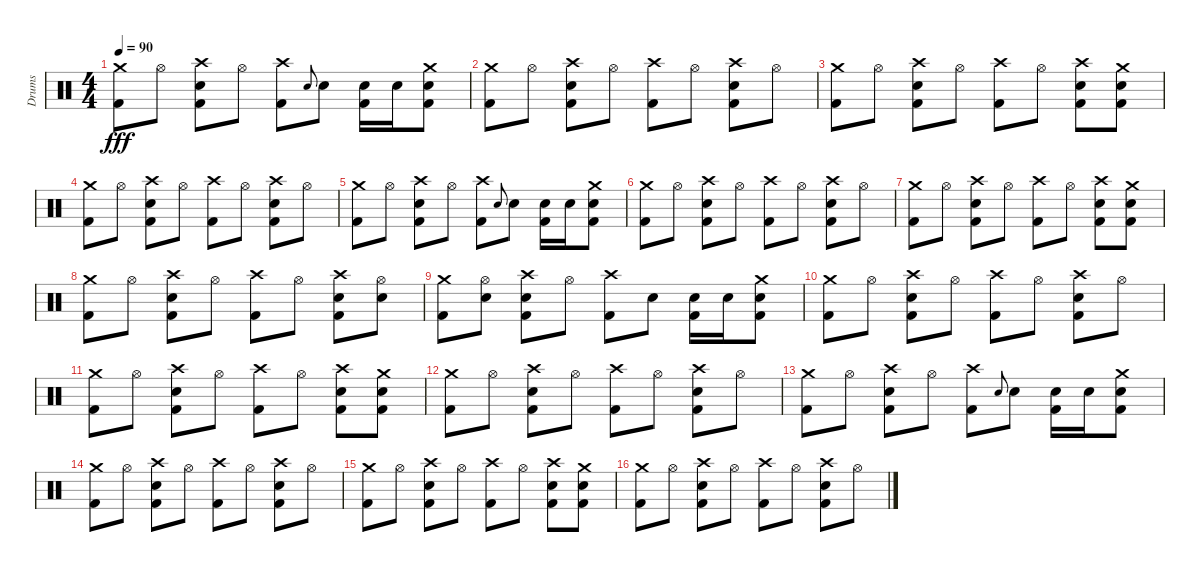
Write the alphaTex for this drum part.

\track ("Drums" "Drums") {instrument percussion}
\staff {score}
\articulation defaults
\ts (4 4)
\tempo 90
\clef neutral
\ks c
("Crash medium (hit)" "Kick (hit) 2").8{dy fff} "Hi-Hat (open)".8 ("Crash high (hit)" "Snare (hit) 2" "Kick (hit) 2").8 "Hi-Hat (open)".8 ("Crash high (hit)" "Kick (hit) 2").8 "Electric Snare (hit)".8{gr onbeat} "Electric Snare (hit)".8 ("Electric Snare (hit)" "Kick (hit) 2").16 "Electric Snare (hit)".16 ("Crash medium (hit)" "Snare (hit) 2" "Kick (hit) 2").8 |
("Crash medium (hit)" "Kick (hit) 2").8 "Hi-Hat (open)".8 ("Crash high (hit)" "Snare (hit) 2" "Kick (hit) 2").8 "Hi-Hat (open)".8 ("Crash high (hit)" "Kick (hit) 2").8 "Hi-Hat (open)".8 ("Crash high (hit)" "Snare (hit) 2" "Kick (hit) 2").8 "Hi-Hat (open)".8 |
("Crash medium (hit)" "Kick (hit) 2").8 "Hi-Hat (open)".8 ("Crash high (hit)" "Snare (hit) 2" "Kick (hit) 2").8 "Hi-Hat (open)".8 ("Crash high (hit)" "Kick (hit) 2").8 "Hi-Hat (open)".8 ("Crash high (hit)" "Snare (hit) 2" "Kick (hit) 2").8 ("Crash medium (hit)" "Snare (hit) 2" "Kick (hit) 2").8 |
("Crash medium (hit)" "Kick (hit) 2").8 "Hi-Hat (open)".8 ("Crash high (hit)" "Snare (hit) 2" "Kick (hit) 2").8 "Hi-Hat (open)".8 ("Crash high (hit)" "Kick (hit) 2").8 "Hi-Hat (open)".8 ("Crash high (hit)" "Snare (hit) 2" "Kick (hit) 2").8 "Hi-Hat (open)".8 |
("Crash medium (hit)" "Kick (hit) 2").8 "Hi-Hat (open)".8 ("Crash high (hit)" "Snare (hit) 2" "Kick (hit) 2").8 "Hi-Hat (open)".8 ("Crash high (hit)" "Kick (hit) 2").8 "Electric Snare (hit)".8{gr onbeat} "Electric Snare (hit)".8 ("Electric Snare (hit)" "Kick (hit) 2").16 "Electric Snare (hit)".16 ("Crash medium (hit)" "Snare (hit) 2" "Kick (hit) 2").8 |
("Crash medium (hit)" "Kick (hit) 2").8 "Hi-Hat (open)".8 ("Crash high (hit)" "Snare (hit) 2" "Kick (hit) 2").8 "Hi-Hat (open)".8 ("Crash high (hit)" "Kick (hit) 2").8 "Hi-Hat (open)".8 ("Crash high (hit)" "Snare (hit) 2" "Kick (hit) 2").8 "Hi-Hat (open)".8 |
("Crash medium (hit)" "Kick (hit) 2").8 "Hi-Hat (open)".8 ("Crash high (hit)" "Snare (hit) 2" "Kick (hit) 2").8 "Hi-Hat (open)".8 ("Crash high (hit)" "Kick (hit) 2").8 "Hi-Hat (open)".8 ("Crash high (hit)" "Snare (hit) 2" "Kick (hit) 2").8 ("Crash medium (hit)" "Snare (hit) 2" "Kick (hit) 2").8 |
("Crash medium (hit)" "Kick (hit) 2").8 "Hi-Hat (open)".8 ("Crash high (hit)" "Snare (hit) 2" "Kick (hit) 2").8 "Hi-Hat (open)".8 ("Crash high (hit)" "Kick (hit) 2").8 "Hi-Hat (open)".8 ("Crash high (hit)" "Snare (hit) 2" "Kick (hit) 2").8 ("Hi-Hat (open)" "Electric Snare (hit)").8 |
("Crash medium (hit)" "Kick (hit) 2").8 ("Hi-Hat (open)" "Electric Snare (hit)").8 ("Crash high (hit)" "Electric Snare (hit)" "Kick (hit) 2").8 "Hi-Hat (open)".8 ("Crash high (hit)" "Kick (hit) 2").8 "Electric Snare (hit)".8 ("Electric Snare (hit)" "Kick (hit) 2").16 "Electric Snare (hit)".16 ("Crash medium (hit)" "Snare (hit) 2" "Kick (hit) 2").8 |
("Crash medium (hit)" "Kick (hit) 2").8 "Hi-Hat (open)".8 ("Crash high (hit)" "Snare (hit) 2" "Kick (hit) 2").8 "Hi-Hat (open)".8 ("Crash high (hit)" "Kick (hit) 2").8 "Hi-Hat (open)".8 ("Crash high (hit)" "Snare (hit) 2" "Kick (hit) 2").8 "Hi-Hat (open)".8 |
("Crash medium (hit)" "Kick (hit) 2").8 "Hi-Hat (open)".8 ("Crash high (hit)" "Snare (hit) 2" "Kick (hit) 2").8 "Hi-Hat (open)".8 ("Crash high (hit)" "Kick (hit) 2").8 "Hi-Hat (open)".8 ("Crash high (hit)" "Snare (hit) 2" "Kick (hit) 2").8 ("Crash medium (hit)" "Snare (hit) 2" "Kick (hit) 2").8 |
("Crash medium (hit)" "Kick (hit) 2").8 "Hi-Hat (open)".8 ("Crash high (hit)" "Snare (hit) 2" "Kick (hit) 2").8 "Hi-Hat (open)".8 ("Crash high (hit)" "Kick (hit) 2").8 "Hi-Hat (open)".8 ("Crash high (hit)" "Snare (hit) 2" "Kick (hit) 2").8 "Hi-Hat (open)".8 |
("Crash medium (hit)" "Kick (hit) 2").8 "Hi-Hat (open)".8 ("Crash high (hit)" "Snare (hit) 2" "Kick (hit) 2").8 "Hi-Hat (open)".8 ("Crash high (hit)" "Kick (hit) 2").8 "Electric Snare (hit)".8{gr onbeat} "Electric Snare (hit)".8 ("Electric Snare (hit)" "Kick (hit) 2").16 "Electric Snare (hit)".16 ("Crash medium (hit)" "Snare (hit) 2" "Kick (hit) 2").8 |
("Crash medium (hit)" "Kick (hit) 2").8 "Hi-Hat (open)".8 ("Crash high (hit)" "Snare (hit) 2" "Kick (hit) 2").8 "Hi-Hat (open)".8 ("Crash high (hit)" "Kick (hit) 2").8 "Hi-Hat (open)".8 ("Crash high (hit)" "Snare (hit) 2" "Kick (hit) 2").8 "Hi-Hat (open)".8 |
("Crash medium (hit)" "Kick (hit) 2").8 "Hi-Hat (open)".8 ("Crash high (hit)" "Snare (hit) 2" "Kick (hit) 2").8 "Hi-Hat (open)".8 ("Crash high (hit)" "Kick (hit) 2").8 "Hi-Hat (open)".8 ("Crash high (hit)" "Snare (hit) 2" "Kick (hit) 2").8 ("Crash medium (hit)" "Snare (hit) 2" "Kick (hit) 2").8 |
("Crash medium (hit)" "Kick (hit) 2").8 "Hi-Hat (open)".8 ("Crash high (hit)" "Snare (hit) 2" "Kick (hit) 2").8 "Hi-Hat (open)".8 ("Crash high (hit)" "Kick (hit) 2").8 "Hi-Hat (open)".8 ("Crash high (hit)" "Snare (hit) 2" "Kick (hit) 2").8 "Hi-Hat (open)".8
